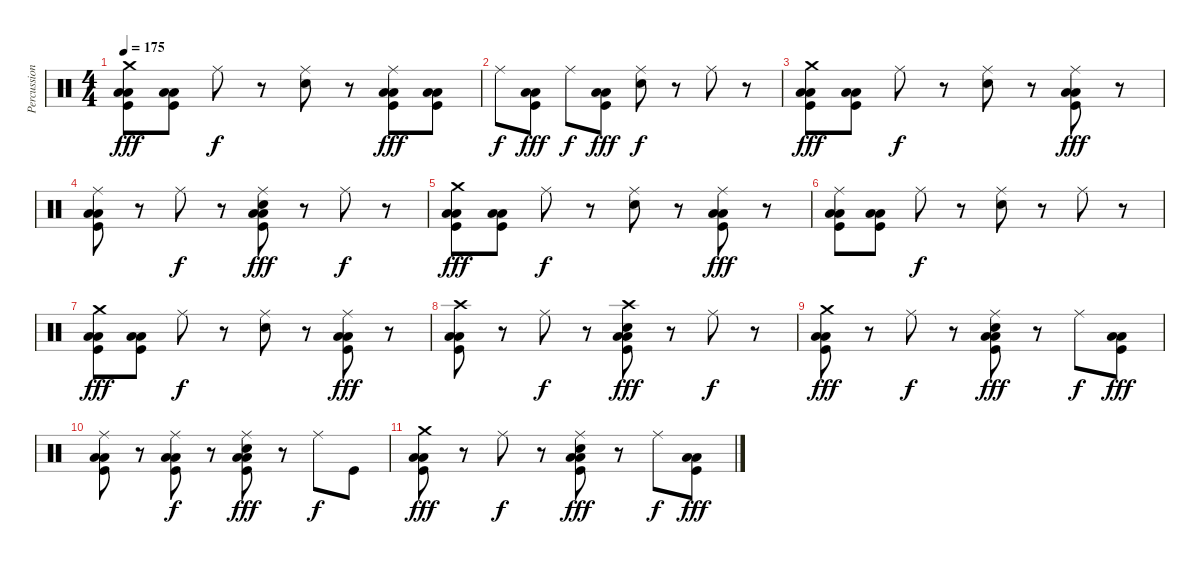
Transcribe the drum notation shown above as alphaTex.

\track ("Percussions" "Percussion") {instrument percussion}
\staff {score}
\articulation defaults
\ts (4 4)
\tempo 175
\clef neutral
\ks c
("Crash medium (hit)" "Low Tom (hit)" "Low Floor Tom (hit)" "Kick (hit)").8{dy fff} ("Low Tom (hit)" "Low Floor Tom (hit)" "Kick (hit)").8 "Ride (middle)".8{dy f} r.8 ("Ride (middle)" "Snare (hit) 2").8 r.8 ("Ride (middle)" "Low Tom (hit)" "Low Floor Tom (hit)" "Kick (hit)").8{dy fff} ("Low Tom (hit)" "Low Floor Tom (hit)" "Kick (hit)").8 |
"Ride (middle)".8{dy f} ("Low Tom (hit)" "Low Floor Tom (hit)" "Kick (hit)").8{dy fff} "Ride (middle)".8{dy f} ("Low Tom (hit)" "Kick (hit)" "Low Floor Tom (hit)").8{dy fff} ("Ride (middle)" "Snare (hit) 2").8{dy f} r.8 "Ride (middle)".8 r.8 |
("Crash medium (hit)" "Low Tom (hit)" "Low Floor Tom (hit)" "Kick (hit)").8{dy fff} ("Low Tom (hit)" "Low Floor Tom (hit)" "Kick (hit)").8 "Ride (middle)".8{dy f} r.8 ("Ride (middle)" "Snare (hit) 2").8 r.8 ("Ride (middle)" "Low Tom (hit)" "Low Floor Tom (hit)" "Kick (hit)").8{dy fff} r.8 |
("Ride (middle)" "Low Tom (hit)" "Low Floor Tom (hit)" "Kick (hit)").8 r.8 "Ride (middle)".8{dy f} r.8 ("Ride (middle)" "Snare (hit) 2" "Low Tom (hit)" "Low Floor Tom (hit)" "Kick (hit)").8{dy fff} r.8 "Ride (middle)".8{dy f} r.8 |
("Crash medium (hit)" "Low Tom (hit)" "Low Floor Tom (hit)" "Kick (hit)").8{dy fff} ("Low Tom (hit)" "Low Floor Tom (hit)" "Kick (hit)").8 "Ride (middle)".8{dy f} r.8 ("Ride (middle)" "Snare (hit) 2").8 r.8 ("Ride (middle)" "Low Tom (hit)" "Low Floor Tom (hit)" "Kick (hit)").8{dy fff} r.8 |
("Ride (middle)" "Low Tom (hit)" "Low Floor Tom (hit)" "Kick (hit)").8 ("Low Tom (hit)" "Low Floor Tom (hit)" "Kick (hit)").8 "Ride (middle)".8{dy f} r.8 ("Ride (middle)" "Snare (hit) 2").8 r.8 "Ride (middle)".8 r.8 |
("Crash medium (hit)" "Low Tom (hit)" "Low Floor Tom (hit)" "Kick (hit)").8{dy fff} ("Low Tom (hit)" "Low Floor Tom (hit)" "Kick (hit)").8 "Ride (middle)".8{dy f} r.8 ("Ride (middle)" "Snare (hit) 2").8 r.8 ("Ride (middle)" "Low Tom (hit)" "Low Floor Tom (hit)" "Kick (hit)").8{dy fff} r.8 |
("Crash high (hit)" "Low Tom (hit)" "Low Floor Tom (hit)" "Kick (hit)").8 r.8 "Ride (middle)".8{dy f} r.8 ("Crash high (hit)" "Snare (hit) 2" "Low Tom (hit)" "Low Floor Tom (hit)" "Kick (hit)").8{dy fff} r.8 "Ride (middle)".8{dy f} r.8 |
("Crash medium (hit)" "Low Tom (hit)" "Low Floor Tom (hit)" "Kick (hit)").8{dy fff} r.8 "Ride (middle)".8{dy f} r.8 ("Ride (middle)" "Snare (hit) 2" "Low Tom (hit)" "Low Floor Tom (hit)" "Kick (hit)").8{dy fff} r.8 "Ride (middle)".8{dy f} ("Low Tom (hit)" "Low Floor Tom (hit)" "Kick (hit)").8{dy fff} |
("Ride (middle)" "Low Tom (hit)" "Low Floor Tom (hit)" "Kick (hit)").8 r.8 ("Ride (middle)" "Low Tom (hit)" "Low Floor Tom (hit)" "Kick (hit)").8{dy f} r.8 ("Ride (middle)" "Snare (hit) 2" "Low Tom (hit)" "Low Floor Tom (hit)" "Kick (hit)").8{dy fff} r.8 "Ride (middle)".8{dy f} "Kick (hit)".8 |
("Crash medium (hit)" "Low Tom (hit)" "Low Floor Tom (hit)" "Kick (hit)").8{dy fff} r.8 "Ride (middle)".8{dy f} r.8 ("Ride (middle)" "Snare (hit) 2" "Low Tom (hit)" "Low Floor Tom (hit)" "Kick (hit)").8{dy fff} r.8 "Ride (middle)".8{dy f} ("Low Tom (hit)" "Low Floor Tom (hit)" "Kick (hit)").8{dy fff}
